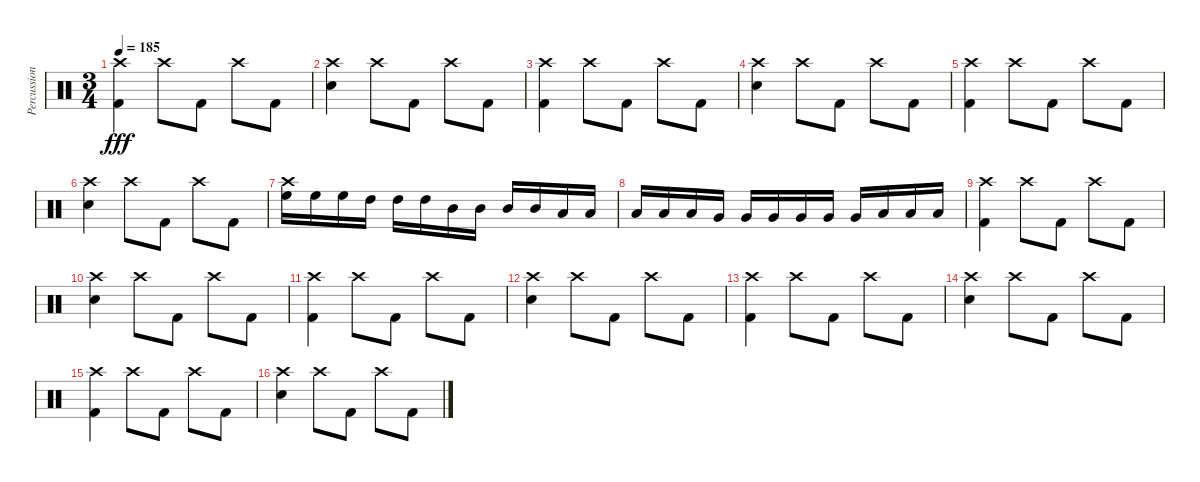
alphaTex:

\track ("Percussion" "Percussion") {instrument percussion}
\staff {score}
\articulation defaults
\ts (3 4)
\tempo 185
\clef neutral
\ks c
("Crash high (hit)" "Kick (hit) 2").4{dy fff} "Crash high (hit)".8 "Kick (hit) 2".8 "Crash high (hit)".8 "Kick (hit) 2".8 |
("Crash high (hit)" "Electric Snare (hit)").4 "Crash high (hit)".8 "Kick (hit) 2".8 "Crash high (hit)".8 "Kick (hit) 2".8 |
("Crash high (hit)" "Kick (hit) 2").4 "Crash high (hit)".8 "Kick (hit) 2".8 "Crash high (hit)".8 "Kick (hit) 2".8 |
("Crash high (hit)" "Electric Snare (hit)").4 "Crash high (hit)".8 "Kick (hit) 2".8 "Crash high (hit)".8 "Kick (hit) 2".8 |
("Crash high (hit)" "Kick (hit) 2").4 "Crash high (hit)".8 "Kick (hit) 2".8 "Crash high (hit)".8 "Kick (hit) 2".8 |
("Crash high (hit)" "Electric Snare (hit)").4 "Crash high (hit)".8 "Kick (hit) 2".8 "Crash high (hit)".8 "Kick (hit) 2".8 |
("Crash high (hit)" "High Floor Tom (hit)").16 "High Floor Tom (hit)".16 "High Floor Tom (hit)".16 "High Tom (hit)".16 "High Tom (hit)".16 "High Tom (hit)".16 "Mid Tom (hit)".16 "Mid Tom (hit)".16 "Mid Tom (hit)".16 "Mid Tom (hit)".16 "Low Tom (hit)".16 "Low Tom (hit)".16 |
"Low Tom (hit)".16 "Low Tom (hit)".16 "Low Tom (hit)".16 "Very Low Tom (hit)".16 "Very Low Tom (hit)".16 "Very Low Tom (hit)".16 "Very Low Tom (hit)".16 "Very Low Tom (hit)".16 "Very Low Tom (hit)".16 "Low Floor Tom (hit)".16 "Low Floor Tom (hit)".16 "Low Floor Tom (hit)".16 |
("Crash high (hit)" "Kick (hit) 2").4 "Crash high (hit)".8 "Kick (hit) 2".8 "Crash high (hit)".8 "Kick (hit) 2".8 |
("Crash high (hit)" "Electric Snare (hit)").4 "Crash high (hit)".8 "Kick (hit) 2".8 "Crash high (hit)".8 "Kick (hit) 2".8 |
("Crash high (hit)" "Kick (hit) 2").4 "Crash high (hit)".8 "Kick (hit) 2".8 "Crash high (hit)".8 "Kick (hit) 2".8 |
("Crash high (hit)" "Electric Snare (hit)").4 "Crash high (hit)".8 "Kick (hit) 2".8 "Crash high (hit)".8 "Kick (hit) 2".8 |
("Crash high (hit)" "Kick (hit) 2").4 "Crash high (hit)".8 "Kick (hit) 2".8 "Crash high (hit)".8 "Kick (hit) 2".8 |
("Crash high (hit)" "Electric Snare (hit)").4 "Crash high (hit)".8 "Kick (hit) 2".8 "Crash high (hit)".8 "Kick (hit) 2".8 |
("Crash high (hit)" "Kick (hit) 2").4 "Crash high (hit)".8 "Kick (hit) 2".8 "Crash high (hit)".8 "Kick (hit) 2".8 |
("Crash high (hit)" "Electric Snare (hit)").4 "Crash high (hit)".8 "Kick (hit) 2".8 "Crash high (hit)".8 "Kick (hit) 2".8
